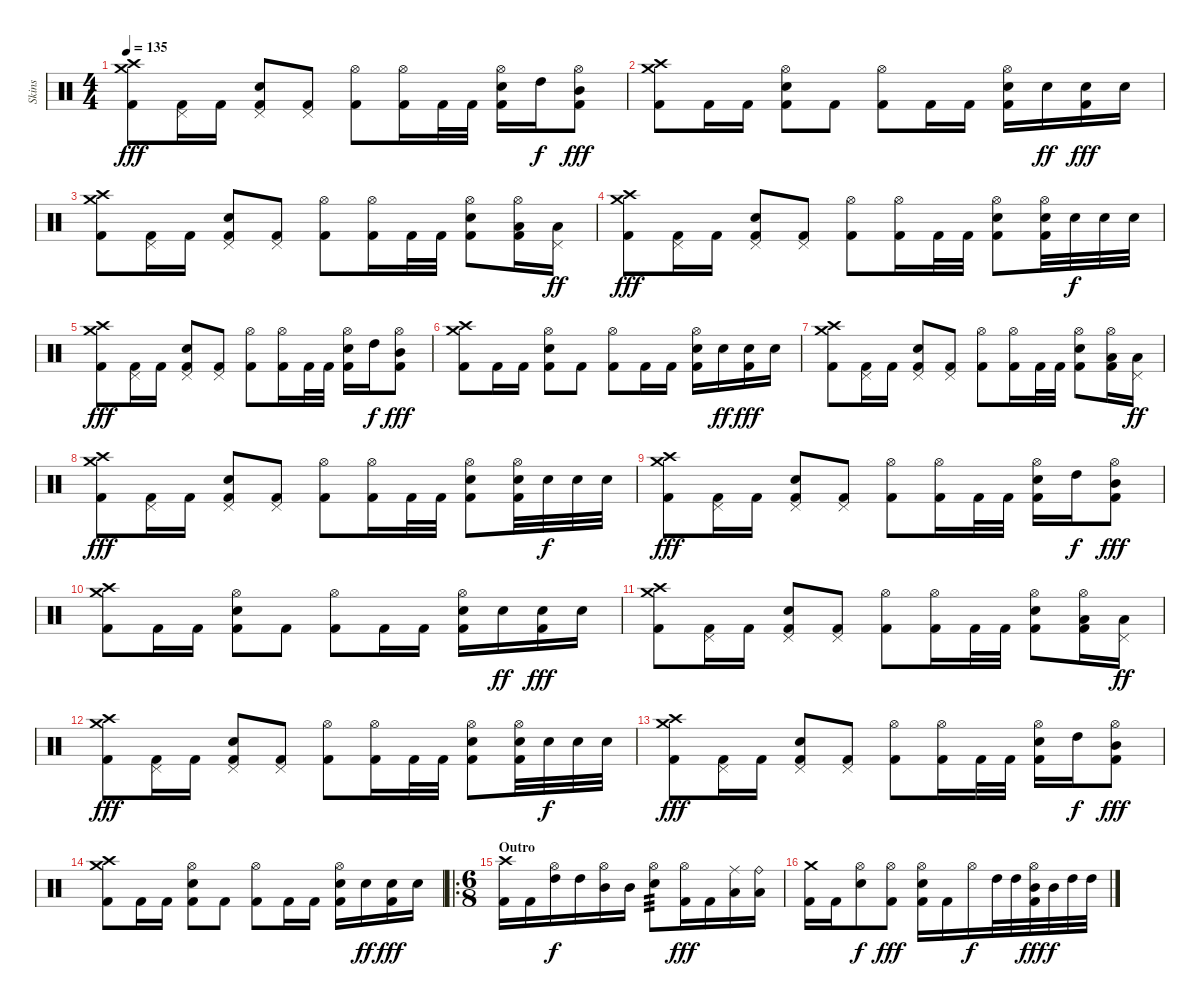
\track ("Skins" "Skins") {instrument percussion}
\staff {score}
\articulation defaults
\ts (4 4)
\tempo 135
\clef neutral
\ks c
("Crash medium (hit)" "Crash high (hit)" "Kick (hit) 2").8{dy fff} ("Pedal Hi-Hat (hit)" "Kick (hit) 2").16 "Kick (hit) 2".16 ("Pedal Hi-Hat (hit)" "Snare (hit) 2" "Kick (hit) 2").8 ("Pedal Hi-Hat (hit)" "Kick (hit) 2").8 ("Hi-Hat (open)" "Kick (hit) 2").8 ("Hi-Hat (open)" "Kick (hit) 2").16 "Kick (hit) 2".32 "Kick (hit) 2".32 ("Hi-Hat (open)" "Snare (hit) 2" "Kick (hit) 2").16 "High Tom (hit)".16{dy f} ("Hi-Hat (open)" "Mid Tom (hit)" "Kick (hit) 2").8{dy fff} |
("Crash medium (hit)" "Crash high (hit)" "Kick (hit) 2").8 "Kick (hit) 2".16 "Kick (hit) 2".16 ("Hi-Hat (open)" "Snare (hit) 2" "Kick (hit) 2").8 "Kick (hit) 2".8 ("Hi-Hat (open)" "Kick (hit) 2").8 "Kick (hit) 2".16 "Kick (hit) 2".16 ("Hi-Hat (open)" "Snare (hit) 2" "Kick (hit) 2").16 "Snare (hit) 2".16{dy ff} ("Snare (hit) 2" "Kick (hit) 2").16{dy fff} "Snare (hit) 2".16 |
("Crash medium (hit)" "Crash high (hit)" "Kick (hit) 2").8 ("Pedal Hi-Hat (hit)" "Kick (hit) 2").16 "Kick (hit) 2".16 ("Pedal Hi-Hat (hit)" "Snare (hit) 2" "Kick (hit) 2").8 ("Pedal Hi-Hat (hit)" "Kick (hit) 2").8 ("Hi-Hat (open)" "Kick (hit) 2").8 ("Hi-Hat (open)" "Kick (hit) 2").16 "Kick (hit) 2".32 "Kick (hit) 2".32 ("Hi-Hat (open)" "Snare (hit) 2" "Kick (hit) 2").8 ("Hi-Hat (open)" "Low Tom (hit)" "Kick (hit) 2").16 ("Pedal Hi-Hat (hit)" "Low Tom (hit)").16{dy ff} |
("Crash medium (hit)" "Crash high (hit)" "Kick (hit) 2").8{dy fff} ("Pedal Hi-Hat (hit)" "Kick (hit) 2").16 "Kick (hit) 2".16 ("Pedal Hi-Hat (hit)" "Snare (hit) 2" "Kick (hit) 2").8 ("Pedal Hi-Hat (hit)" "Kick (hit) 2").8 ("Hi-Hat (open)" "Kick (hit) 2").8 ("Hi-Hat (open)" "Kick (hit) 2").16 "Kick (hit) 2".32 "Kick (hit) 2".32 ("Hi-Hat (open)" "Snare (hit) 2" "Kick (hit) 2").8 ("Hi-Hat (open)" "Snare (hit) 2" "Kick (hit) 2").32 "Snare (hit) 2".32{dy f} "Snare (hit) 2".32 "Snare (hit) 2".32 |
("Crash medium (hit)" "Crash high (hit)" "Kick (hit) 2").8{dy fff} ("Pedal Hi-Hat (hit)" "Kick (hit) 2").16 "Kick (hit) 2".16 ("Pedal Hi-Hat (hit)" "Snare (hit) 2" "Kick (hit) 2").8 ("Pedal Hi-Hat (hit)" "Kick (hit) 2").8 ("Hi-Hat (open)" "Kick (hit) 2").8 ("Hi-Hat (open)" "Kick (hit) 2").16 "Kick (hit) 2".32 "Kick (hit) 2".32 ("Hi-Hat (open)" "Snare (hit) 2" "Kick (hit) 2").16 "High Tom (hit)".16{dy f} ("Hi-Hat (open)" "Mid Tom (hit)" "Kick (hit) 2").8{dy fff} |
("Crash medium (hit)" "Crash high (hit)" "Kick (hit) 2").8 "Kick (hit) 2".16 "Kick (hit) 2".16 ("Hi-Hat (open)" "Snare (hit) 2" "Kick (hit) 2").8 "Kick (hit) 2".8 ("Hi-Hat (open)" "Kick (hit) 2").8 "Kick (hit) 2".16 "Kick (hit) 2".16 ("Hi-Hat (open)" "Snare (hit) 2" "Kick (hit) 2").16 "Snare (hit) 2".16{dy ff} ("Snare (hit) 2" "Kick (hit) 2").16{dy fff} "Snare (hit) 2".16 |
("Crash medium (hit)" "Crash high (hit)" "Kick (hit) 2").8 ("Pedal Hi-Hat (hit)" "Kick (hit) 2").16 "Kick (hit) 2".16 ("Pedal Hi-Hat (hit)" "Snare (hit) 2" "Kick (hit) 2").8 ("Pedal Hi-Hat (hit)" "Kick (hit) 2").8 ("Hi-Hat (open)" "Kick (hit) 2").8 ("Hi-Hat (open)" "Kick (hit) 2").16 "Kick (hit) 2".32 "Kick (hit) 2".32 ("Hi-Hat (open)" "Snare (hit) 2" "Kick (hit) 2").8 ("Hi-Hat (open)" "Low Tom (hit)" "Kick (hit) 2").16 ("Pedal Hi-Hat (hit)" "Low Tom (hit)").16{dy ff} |
("Crash medium (hit)" "Crash high (hit)" "Kick (hit) 2").8{dy fff} ("Pedal Hi-Hat (hit)" "Kick (hit) 2").16 "Kick (hit) 2".16 ("Pedal Hi-Hat (hit)" "Snare (hit) 2" "Kick (hit) 2").8 ("Pedal Hi-Hat (hit)" "Kick (hit) 2").8 ("Hi-Hat (open)" "Kick (hit) 2").8 ("Hi-Hat (open)" "Kick (hit) 2").16 "Kick (hit) 2".32 "Kick (hit) 2".32 ("Hi-Hat (open)" "Snare (hit) 2" "Kick (hit) 2").8 ("Hi-Hat (open)" "Snare (hit) 2" "Kick (hit) 2").32 "Snare (hit) 2".32{dy f} "Snare (hit) 2".32 "Snare (hit) 2".32 |
("Crash medium (hit)" "Crash high (hit)" "Kick (hit) 2").8{dy fff} ("Pedal Hi-Hat (hit)" "Kick (hit) 2").16 "Kick (hit) 2".16 ("Pedal Hi-Hat (hit)" "Snare (hit) 2" "Kick (hit) 2").8 ("Pedal Hi-Hat (hit)" "Kick (hit) 2").8 ("Hi-Hat (open)" "Kick (hit) 2").8 ("Hi-Hat (open)" "Kick (hit) 2").16 "Kick (hit) 2".32 "Kick (hit) 2".32 ("Hi-Hat (open)" "Snare (hit) 2" "Kick (hit) 2").16 "High Tom (hit)".16{dy f} ("Hi-Hat (open)" "Mid Tom (hit)" "Kick (hit) 2").8{dy fff} |
("Crash medium (hit)" "Crash high (hit)" "Kick (hit) 2").8 "Kick (hit) 2".16 "Kick (hit) 2".16 ("Hi-Hat (open)" "Snare (hit) 2" "Kick (hit) 2").8 "Kick (hit) 2".8 ("Hi-Hat (open)" "Kick (hit) 2").8 "Kick (hit) 2".16 "Kick (hit) 2".16 ("Hi-Hat (open)" "Snare (hit) 2" "Kick (hit) 2").16 "Snare (hit) 2".16{dy ff} ("Snare (hit) 2" "Kick (hit) 2").16{dy fff} "Snare (hit) 2".16 |
("Crash medium (hit)" "Crash high (hit)" "Kick (hit) 2").8 ("Pedal Hi-Hat (hit)" "Kick (hit) 2").16 "Kick (hit) 2".16 ("Pedal Hi-Hat (hit)" "Snare (hit) 2" "Kick (hit) 2").8 ("Pedal Hi-Hat (hit)" "Kick (hit) 2").8 ("Hi-Hat (open)" "Kick (hit) 2").8 ("Hi-Hat (open)" "Kick (hit) 2").16 "Kick (hit) 2".32 "Kick (hit) 2".32 ("Hi-Hat (open)" "Snare (hit) 2" "Kick (hit) 2").8 ("Hi-Hat (open)" "Low Tom (hit)" "Kick (hit) 2").16 ("Pedal Hi-Hat (hit)" "Low Tom (hit)").16{dy ff} |
("Crash medium (hit)" "Crash high (hit)" "Kick (hit) 2").8{dy fff} ("Pedal Hi-Hat (hit)" "Kick (hit) 2").16 "Kick (hit) 2".16 ("Pedal Hi-Hat (hit)" "Snare (hit) 2" "Kick (hit) 2").8 ("Pedal Hi-Hat (hit)" "Kick (hit) 2").8 ("Hi-Hat (open)" "Kick (hit) 2").8 ("Hi-Hat (open)" "Kick (hit) 2").16 "Kick (hit) 2".32 "Kick (hit) 2".32 ("Hi-Hat (open)" "Snare (hit) 2" "Kick (hit) 2").8 ("Hi-Hat (open)" "Snare (hit) 2" "Kick (hit) 2").32 "Snare (hit) 2".32{dy f} "Snare (hit) 2".32 "Snare (hit) 2".32 |
("Crash medium (hit)" "Crash high (hit)" "Kick (hit) 2").8{dy fff} ("Pedal Hi-Hat (hit)" "Kick (hit) 2").16 "Kick (hit) 2".16 ("Pedal Hi-Hat (hit)" "Snare (hit) 2" "Kick (hit) 2").8 ("Pedal Hi-Hat (hit)" "Kick (hit) 2").8 ("Hi-Hat (open)" "Kick (hit) 2").8 ("Hi-Hat (open)" "Kick (hit) 2").16 "Kick (hit) 2".32 "Kick (hit) 2".32 ("Hi-Hat (open)" "Snare (hit) 2" "Kick (hit) 2").16 "High Tom (hit)".16{dy f} ("Hi-Hat (open)" "Mid Tom (hit)" "Kick (hit) 2").8{dy fff} |
("Crash medium (hit)" "Crash high (hit)" "Kick (hit) 2").8 "Kick (hit) 2".16 "Kick (hit) 2".16 ("Hi-Hat (open)" "Snare (hit) 2" "Kick (hit) 2").8 "Kick (hit) 2".8 ("Hi-Hat (open)" "Kick (hit) 2").8 "Kick (hit) 2".16 "Kick (hit) 2".16 ("Hi-Hat (open)" "Snare (hit) 2" "Kick (hit) 2").16 "Snare (hit) 2".16{dy ff} ("Snare (hit) 2" "Kick (hit) 2").16{dy fff} "Snare (hit) 2".16 |
\ro
\ts (6 8)
\section ("" "Outro")
("Crash high (hit)" "Kick (hit) 2").16 "Kick (hit) 2".16 ("Hi-Hat (open)" "High Tom (hit)").16{dy f} "High Tom (hit)".16 ("Hi-Hat (open)" "Mid Tom (hit)").16 "Mid Tom (hit)".16 ("Hi-Hat (open)" "Snare (hit) 2").8{tp 3} ("Hi-Hat (open)" "Kick (hit) 2").16{dy fff} "Kick (hit) 2".16 ("Ride (middle)" "Low Tom (hit)").16 ("Ride (bell)" "Low Tom (hit)").16 |
("Crash medium (hit)" "Kick (hit) 2").16 "Kick (hit) 2".16 ("Hi-Hat (open)" "Snare (hit) 2").8{dy f} ("Hi-Hat (open)" "Kick (hit) 2").8{dy fff} ("Hi-Hat (open)" "Snare (hit) 2" "Kick (hit) 2").16 "Kick (hit) 2".16 "Hi-Hat (open)".16{dy f} "High Tom (hit)".32 "High Tom (hit)".32 ("Hi-Hat (open)" "Mid Tom (hit)" "Kick (hit) 2").32{dy fff} "Mid Tom (hit)".32{dy f} "High Tom (hit)".32 "High Tom (hit)".32
